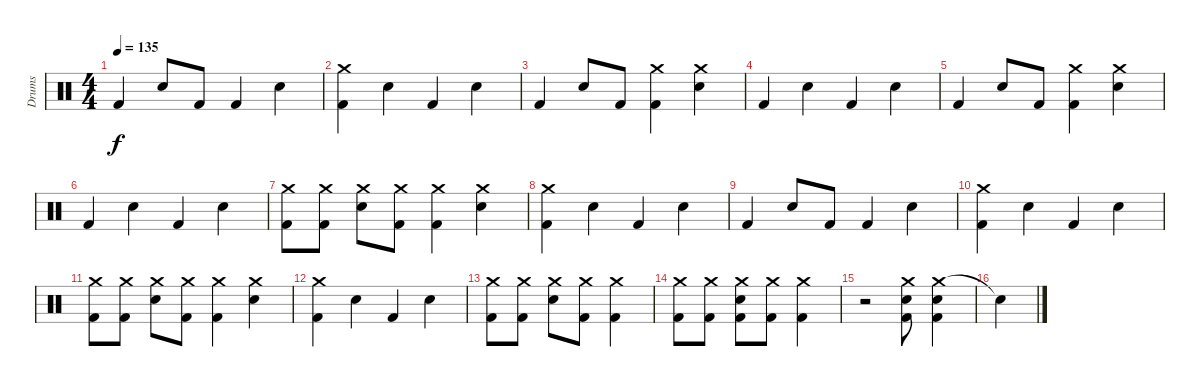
\track ("Drums" "Drums") {instrument percussion}
\staff {score}
\articulation defaults
\ts (4 4)
\tempo 135
\clef neutral
\ks c "Kick (hit) 2".4{dy f} "Electric Snare (hit)".8 "Kick (hit) 2".8 "Kick (hit) 2".4 "Electric Snare (hit)".4
|
("Crash medium (hit)" "Kick (hit) 2").4 "Electric Snare (hit)".4 "Kick (hit) 2".4 "Electric Snare (hit)".4 |
"Kick (hit) 2".4 "Electric Snare (hit)".8 "Kick (hit) 2".8 ("Crash medium (hit)" "Kick (hit) 2").4 ("Crash medium (hit)" "Electric Snare (hit)").4 |
"Kick (hit) 2".4 "Electric Snare (hit)".4 "Kick (hit) 2".4 "Electric Snare (hit)".4 |
"Kick (hit) 2".4 "Electric Snare (hit)".8 "Kick (hit) 2".8 ("Crash medium (hit)" "Kick (hit) 2").4 ("Crash medium (hit)" "Electric Snare (hit)").4 |
"Kick (hit) 2".4 "Electric Snare (hit)".4 "Kick (hit) 2".4 "Electric Snare (hit)".4 |
("Crash medium (hit)" "Kick (hit) 2").8 ("Crash medium (hit)" "Kick (hit) 2").8 ("Crash medium (hit)" "Electric Snare (hit)").8 ("Crash medium (hit)" "Kick (hit) 2").8 ("Crash medium (hit)" "Kick (hit) 2").4 ("Crash medium (hit)" "Electric Snare (hit)").4 |
("Crash medium (hit)" "Kick (hit) 2").4 "Electric Snare (hit)".4 "Kick (hit) 2".4 "Electric Snare (hit)".4 |
"Kick (hit) 2".4 "Electric Snare (hit)".8 "Kick (hit) 2".8 "Kick (hit) 2".4 "Electric Snare (hit)".4 |
("Crash medium (hit)" "Kick (hit) 2").4 "Electric Snare (hit)".4 "Kick (hit) 2".4 "Electric Snare (hit)".4 |
("Crash medium (hit)" "Kick (hit) 2").8 ("Crash medium (hit)" "Kick (hit) 2").8 ("Crash medium (hit)" "Electric Snare (hit)").8 ("Crash medium (hit)" "Kick (hit) 2").8 ("Crash medium (hit)" "Kick (hit) 2").4 ("Crash medium (hit)" "Electric Snare (hit)").4 |
("Crash medium (hit)" "Kick (hit) 2").4 "Electric Snare (hit)".4 "Kick (hit) 2".4 "Electric Snare (hit)".4 |
("Crash medium (hit)" "Kick (hit) 2").8 ("Crash medium (hit)" "Kick (hit) 2").8 ("Crash medium (hit)" "Electric Snare (hit)").8 ("Crash medium (hit)" "Kick (hit) 2").8 ("Crash medium (hit)" "Kick (hit) 2").4 |
("Crash medium (hit)" "Kick (hit) 2").8 ("Crash medium (hit)" "Kick (hit) 2").8 ("Crash medium (hit)" "Electric Snare (hit)" "Kick (hit) 2").8 ("Crash medium (hit)" "Kick (hit) 2").8 ("Crash medium (hit)" "Kick (hit) 2").4 |
r.2 ("Crash medium (hit)" "Electric Snare (hit)" "Kick (hit) 2").8 ("Crash medium (hit)" "Electric Snare (hit)" "Kick (hit) 2").4 |
"Snare (hit)"{t}.4
